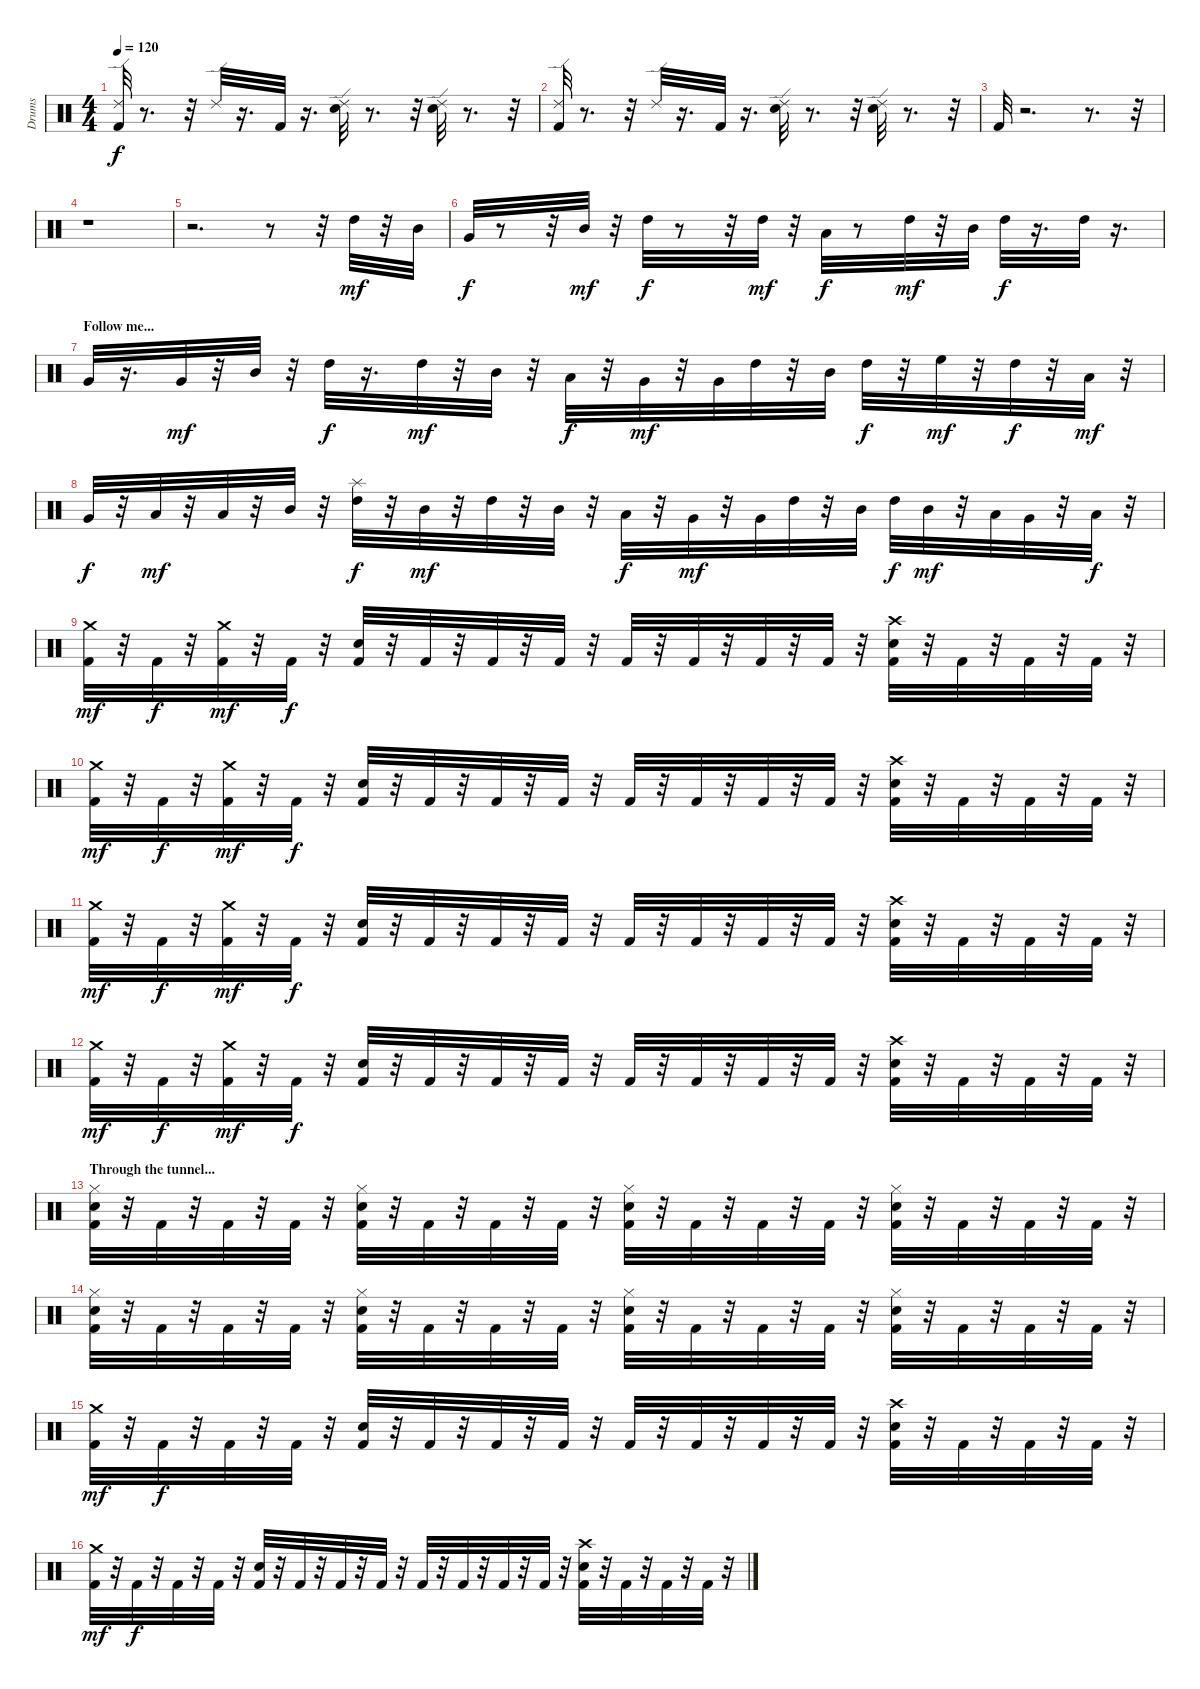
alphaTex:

\track ("Drums" "Drums") {instrument percussion}
\staff {score}
\articulation defaults
\ts (4 4)
\tempo 120
\clef neutral
\ks c
("Kick (hit) 2" "Ride (edge) 2").32{dy f} r.8{d} r.32 "Ride (edge) 2".32 r.16{d} "Kick (hit) 2".32 r.16{d} ("Snare (hit) 2" "Ride (edge) 2").32 r.8{d} r.32 ("Snare (hit) 2" "Ride (edge) 2").32 r.8{d} r.32 |
("Kick (hit) 2" "Ride (edge) 2").32 r.8{d} r.32 "Ride (edge) 2".32 r.16{d} "Kick (hit) 2".32 r.16{d} ("Snare (hit) 2" "Ride (edge) 2").32 r.8{d} r.32 ("Snare (hit) 2" "Ride (edge) 2").32 r.8{d} r.32 |
"Kick (hit) 2".32 r.2{d} r.8{d} r.32 |
r.1 |
r.2{d} r.8 r.32 "High Tom (hit)".32{dy mf} r.32 "Mid Tom (hit)".32 |
"Very Low Tom (hit)".32{dy f} r.8 r.32 "Mid Tom (hit)".32{dy mf} r.32 "High Tom (hit)".32{dy f} r.8 r.32 "High Tom (hit)".32{dy mf} r.32 "Low Tom (hit)".32{dy f} r.8 "High Tom (hit)".32{dy mf} r.32 "Mid Tom (hit)".32 "High Tom (hit)".32{dy f} r.16{d} "High Tom (hit)".32 r.16{d} |
\section ("" "Follow me...")
"Very Low Tom (hit)".32 r.16{d} "Very Low Tom (hit)".32{dy mf} r.32 "Mid Tom (hit)".32 r.32 "High Tom (hit)".32{dy f} r.16{d} "High Tom (hit)".32{dy mf} r.32 "Mid Tom (hit)".32 r.32 "Low Tom (hit)".32{dy f} r.32 "Very Low Tom (hit)".32{dy mf} r.32 "Very Low Tom (hit)".32 "High Tom (hit)".32 r.32 "Mid Tom (hit)".32 "High Tom (hit)".32{dy f} r.32 "High Floor Tom (hit)".32{dy mf} r.32 "High Tom (hit)".32{dy f} r.32 "Low Tom (hit)".32{dy mf} r.32 |
"Very Low Tom (hit)".32{dy f} r.32 "Low Floor Tom (hit)".32{dy mf} r.32 "Low Tom (hit)".32 r.32 "Mid Tom (hit)".32 r.32 ("High Tom (hit)" "Splash (hit)").32{dy f} r.32 "Mid Tom (hit)".32{dy mf} r.32 "High Tom (hit)".32 r.32 "Mid Tom (hit)".32 r.32 "Low Tom (hit)".32{dy f} r.32 "Very Low Tom (hit)".32{dy mf} r.32 "Very Low Tom (hit)".32 "High Tom (hit)".32 r.32 "Mid Tom (hit)".32 "High Tom (hit)".32{dy f} "Mid Tom (hit)".32{dy mf} r.32 "Low Tom (hit)".32 "Very Low Tom (hit)".32 r.32 "Low Floor Tom (hit)".32{dy f} r.32 |
("Kick (hit) 2" "Crash medium (hit)").32{dy mf} r.32 "Kick (hit) 2".32{dy f} r.32 ("Kick (hit) 2" "Crash medium (hit)").32{dy mf} r.32 "Kick (hit) 2".32{dy f} r.32 ("Kick (hit) 2" "Snare (hit) 2").32 r.32 "Kick (hit) 2".32 r.32 "Kick (hit) 2".32 r.32 "Kick (hit) 2".32 r.32 "Kick (hit) 2".32 r.32 "Kick (hit) 2".32 r.32 "Kick (hit) 2".32 r.32 "Kick (hit) 2".32 r.32 ("Kick (hit) 2" "Snare (hit) 2" "Crash high (hit)").32 r.32 "Kick (hit) 2".32 r.32 "Kick (hit) 2".32 r.32 "Kick (hit) 2".32 r.32 |
("Kick (hit) 2" "Crash medium (hit)").32{dy mf} r.32 "Kick (hit) 2".32{dy f} r.32 ("Kick (hit) 2" "Crash medium (hit)").32{dy mf} r.32 "Kick (hit) 2".32{dy f} r.32 ("Kick (hit) 2" "Snare (hit) 2").32 r.32 "Kick (hit) 2".32 r.32 "Kick (hit) 2".32 r.32 "Kick (hit) 2".32 r.32 "Kick (hit) 2".32 r.32 "Kick (hit) 2".32 r.32 "Kick (hit) 2".32 r.32 "Kick (hit) 2".32 r.32 ("Kick (hit) 2" "Snare (hit) 2" "Crash high (hit)").32 r.32 "Kick (hit) 2".32 r.32 "Kick (hit) 2".32 r.32 "Kick (hit) 2".32 r.32 |
("Kick (hit) 2" "Crash medium (hit)").32{dy mf} r.32 "Kick (hit) 2".32{dy f} r.32 ("Kick (hit) 2" "Crash medium (hit)").32{dy mf} r.32 "Kick (hit) 2".32{dy f} r.32 ("Kick (hit) 2" "Snare (hit) 2").32 r.32 "Kick (hit) 2".32 r.32 "Kick (hit) 2".32 r.32 "Kick (hit) 2".32 r.32 "Kick (hit) 2".32 r.32 "Kick (hit) 2".32 r.32 "Kick (hit) 2".32 r.32 "Kick (hit) 2".32 r.32 ("Kick (hit) 2" "Snare (hit) 2" "Crash high (hit)").32 r.32 "Kick (hit) 2".32 r.32 "Kick (hit) 2".32 r.32 "Kick (hit) 2".32 r.32 |
("Kick (hit) 2" "Crash medium (hit)").32{dy mf} r.32 "Kick (hit) 2".32{dy f} r.32 ("Kick (hit) 2" "Crash medium (hit)").32{dy mf} r.32 "Kick (hit) 2".32{dy f} r.32 ("Kick (hit) 2" "Snare (hit) 2").32 r.32 "Kick (hit) 2".32 r.32 "Kick (hit) 2".32 r.32 "Kick (hit) 2".32 r.32 "Kick (hit) 2".32 r.32 "Kick (hit) 2".32 r.32 "Kick (hit) 2".32 r.32 "Kick (hit) 2".32 r.32 ("Kick (hit) 2" "Snare (hit) 2" "Crash high (hit)").32 r.32 "Kick (hit) 2".32 r.32 "Kick (hit) 2".32 r.32 "Kick (hit) 2".32 r.32 |
\section ("" "Through the tunnel...")
("Kick (hit) 2" "Snare (hit) 2" "Hi-Hat (closed)").32 r.32 "Kick (hit) 2".32 r.32 "Kick (hit) 2".32 r.32 "Kick (hit) 2".32 r.32 ("Kick (hit) 2" "Snare (hit) 2" "Hi-Hat (closed)").32 r.32 "Kick (hit) 2".32 r.32 "Kick (hit) 2".32 r.32 "Kick (hit) 2".32 r.32 ("Kick (hit) 2" "Snare (hit) 2" "Hi-Hat (closed)").32 r.32 "Kick (hit) 2".32 r.32 "Kick (hit) 2".32 r.32 "Kick (hit) 2".32 r.32 ("Kick (hit) 2" "Snare (hit) 2" "Hi-Hat (closed)").32 r.32 "Kick (hit) 2".32 r.32 "Kick (hit) 2".32 r.32 "Kick (hit) 2".32 r.32 |
("Kick (hit) 2" "Snare (hit) 2" "Hi-Hat (closed)").32 r.32 "Kick (hit) 2".32 r.32 "Kick (hit) 2".32 r.32 "Kick (hit) 2".32 r.32 ("Kick (hit) 2" "Snare (hit) 2" "Hi-Hat (closed)").32 r.32 "Kick (hit) 2".32 r.32 "Kick (hit) 2".32 r.32 "Kick (hit) 2".32 r.32 ("Kick (hit) 2" "Snare (hit) 2" "Hi-Hat (closed)").32 r.32 "Kick (hit) 2".32 r.32 "Kick (hit) 2".32 r.32 "Kick (hit) 2".32 r.32 ("Kick (hit) 2" "Snare (hit) 2" "Hi-Hat (closed)").32 r.32 "Kick (hit) 2".32 r.32 "Kick (hit) 2".32 r.32 "Kick (hit) 2".32 r.32 |
("Kick (hit) 2" "Crash medium (hit)").32{dy mf} r.32 "Kick (hit) 2".32{dy f} r.32 "Kick (hit) 2".32 r.32 "Kick (hit) 2".32 r.32 ("Kick (hit) 2" "Snare (hit) 2").32 r.32 "Kick (hit) 2".32 r.32 "Kick (hit) 2".32 r.32 "Kick (hit) 2".32 r.32 "Kick (hit) 2".32 r.32 "Kick (hit) 2".32 r.32 "Kick (hit) 2".32 r.32 "Kick (hit) 2".32 r.32 ("Kick (hit) 2" "Snare (hit) 2" "Crash high (hit)").32 r.32 "Kick (hit) 2".32 r.32 "Kick (hit) 2".32 r.32 "Kick (hit) 2".32 r.32 |
("Kick (hit) 2" "Crash medium (hit)").32{dy mf} r.32 "Kick (hit) 2".32{dy f} r.32 "Kick (hit) 2".32 r.32 "Kick (hit) 2".32 r.32 ("Kick (hit) 2" "Snare (hit) 2").32 r.32 "Kick (hit) 2".32 r.32 "Kick (hit) 2".32 r.32 "Kick (hit) 2".32 r.32 "Kick (hit) 2".32 r.32 "Kick (hit) 2".32 r.32 "Kick (hit) 2".32 r.32 "Kick (hit) 2".32 r.32 ("Kick (hit) 2" "Snare (hit) 2" "Crash high (hit)").32 r.32 "Kick (hit) 2".32 r.32 "Kick (hit) 2".32 r.32 "Kick (hit) 2".32 r.32
